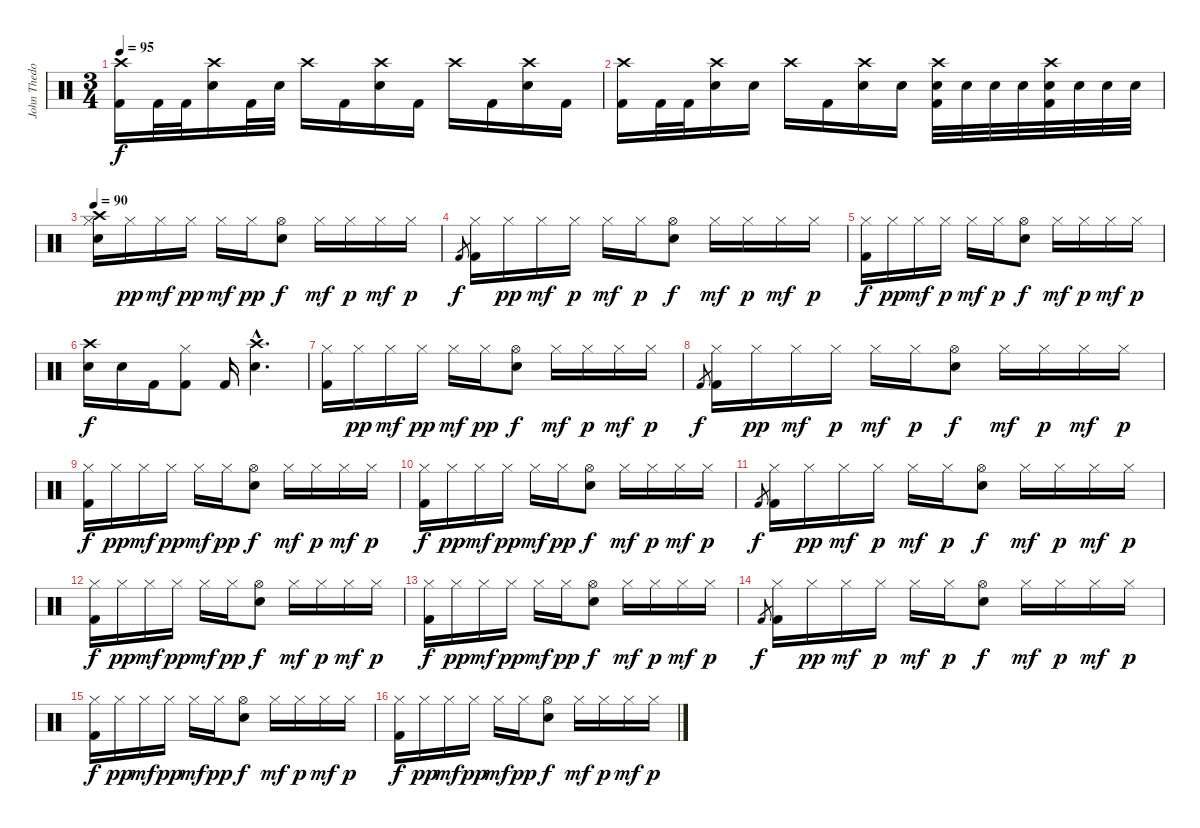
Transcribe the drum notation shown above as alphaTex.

\track ("John Thedore" "John Thedo") {instrument percussion}
\staff {score}
\articulation defaults
\ts (3 4)
\tempo 95
\clef neutral
\ks c
("Crash high (hit)" "Kick (hit) 2").16{dy f} "Kick (hit) 2".32 "Kick (hit) 2".32 ("Crash high (hit)" "Electric Snare (hit)").16 "Kick (hit) 2".32 "Electric Snare (hit)".32 "Crash high (hit)".16 "Kick (hit) 2".16 ("Crash high (hit)" "Electric Snare (hit)").16 "Kick (hit) 2".16 "Crash high (hit)".16 "Kick (hit) 2".16 ("Crash high (hit)" "Electric Snare (hit)").16 "Kick (hit) 2".16 |
("Crash high (hit)" "Kick (hit) 2").16 "Kick (hit) 2".32 "Kick (hit) 2".32 ("Crash high (hit)" "Electric Snare (hit)").16 "Electric Snare (hit)".16 "Crash high (hit)".16 "Kick (hit) 2".16 ("Crash high (hit)" "Electric Snare (hit)").16 "Electric Snare (hit)".16 ("Crash high (hit)" "Electric Snare (hit)" "Kick (hit) 2").32 "Electric Snare (hit)".32 "Electric Snare (hit)".32 "Electric Snare (hit)".32 ("Crash high (hit)" "Electric Snare (hit)" "Kick (hit) 2").32 "Electric Snare (hit)".32 "Electric Snare (hit)".32 "Electric Snare (hit)".32 |
\tempo 90
("Crash high (hit)" "Electric Snare (hit)" "Hi-Hat (closed)").16 "Hi-Hat (closed)".16{dy pp} "Hi-Hat (closed)".16{dy mf} "Hi-Hat (closed)".16{dy pp} "Hi-Hat (closed)".16{dy mf} "Hi-Hat (closed)".16{dy pp} ("Hi-Hat (open)" "Electric Snare (hit)").8{dy f} "Hi-Hat (closed)".16{dy mf} "Hi-Hat (closed)".16{dy p} "Hi-Hat (closed)".16{dy mf} "Hi-Hat (closed)".16{dy p} |
"Kick (hit) 2".8{gr dy f} ("Kick (hit) 2" "Hi-Hat (closed)").16 "Hi-Hat (closed)".16{dy pp} "Hi-Hat (closed)".16{dy mf} "Hi-Hat (closed)".16{dy p} "Hi-Hat (closed)".16{dy mf} "Hi-Hat (closed)".16{dy p} ("Hi-Hat (open)" "Electric Snare (hit)").8{dy f} "Hi-Hat (closed)".16{dy mf} "Hi-Hat (closed)".16{dy p} "Hi-Hat (closed)".16{dy mf} "Hi-Hat (closed)".16{dy p} |
("Kick (hit) 2" "Hi-Hat (closed)").16{dy f} "Hi-Hat (closed)".16{dy pp} "Hi-Hat (closed)".16{dy mf} "Hi-Hat (closed)".16{dy p} "Hi-Hat (closed)".16{dy mf} "Hi-Hat (closed)".16{dy p} ("Hi-Hat (open)" "Electric Snare (hit)").8{dy f} "Hi-Hat (closed)".16{dy mf} "Hi-Hat (closed)".16{dy p} "Hi-Hat (closed)".16{dy mf} "Hi-Hat (closed)".16{dy p} |
("Crash high (hit)" "Electric Snare (hit)").16{dy f} "Electric Snare (hit)".16 "Kick (hit) 2".16 ("Hi-Hat (closed)" "Kick (hit) 2").8 "Kick (hit) 2".16 ("Crash high (hit)"{hac} "Electric Snare (hit)"{hac}).4{d} |
("Kick (hit) 2" "Hi-Hat (closed)").16 "Hi-Hat (closed)".16{dy pp} "Hi-Hat (closed)".16{dy mf} "Hi-Hat (closed)".16{dy pp} "Hi-Hat (closed)".16{dy mf} "Hi-Hat (closed)".16{dy pp} ("Hi-Hat (open)" "Electric Snare (hit)").8{dy f} "Hi-Hat (closed)".16{dy mf} "Hi-Hat (closed)".16{dy p} "Hi-Hat (closed)".16{dy mf} "Hi-Hat (closed)".16{dy p} |
"Kick (hit) 2".8{gr dy f} ("Kick (hit) 2" "Hi-Hat (closed)").16 "Hi-Hat (closed)".16{dy pp} "Hi-Hat (closed)".16{dy mf} "Hi-Hat (closed)".16{dy p} "Hi-Hat (closed)".16{dy mf} "Hi-Hat (closed)".16{dy p} ("Hi-Hat (open)" "Electric Snare (hit)").8{dy f} "Hi-Hat (closed)".16{dy mf} "Hi-Hat (closed)".16{dy p} "Hi-Hat (closed)".16{dy mf} "Hi-Hat (closed)".16{dy p} |
("Kick (hit) 2" "Hi-Hat (closed)").16{dy f} "Hi-Hat (closed)".16{dy pp} "Hi-Hat (closed)".16{dy mf} "Hi-Hat (closed)".16{dy pp} "Hi-Hat (closed)".16{dy mf} "Hi-Hat (closed)".16{dy pp} ("Hi-Hat (open)" "Electric Snare (hit)").8{dy f} "Hi-Hat (closed)".16{dy mf} "Hi-Hat (closed)".16{dy p} "Hi-Hat (closed)".16{dy mf} "Hi-Hat (closed)".16{dy p} |
("Kick (hit) 2" "Hi-Hat (closed)").16{dy f} "Hi-Hat (closed)".16{dy pp} "Hi-Hat (closed)".16{dy mf} "Hi-Hat (closed)".16{dy pp} "Hi-Hat (closed)".16{dy mf} "Hi-Hat (closed)".16{dy pp} ("Hi-Hat (open)" "Electric Snare (hit)").8{dy f} "Hi-Hat (closed)".16{dy mf} "Hi-Hat (closed)".16{dy p} "Hi-Hat (closed)".16{dy mf} "Hi-Hat (closed)".16{dy p} |
"Kick (hit) 2".8{gr dy f} ("Kick (hit) 2" "Hi-Hat (closed)").16 "Hi-Hat (closed)".16{dy pp} "Hi-Hat (closed)".16{dy mf} "Hi-Hat (closed)".16{dy p} "Hi-Hat (closed)".16{dy mf} "Hi-Hat (closed)".16{dy p} ("Hi-Hat (open)" "Electric Snare (hit)").8{dy f} "Hi-Hat (closed)".16{dy mf} "Hi-Hat (closed)".16{dy p} "Hi-Hat (closed)".16{dy mf} "Hi-Hat (closed)".16{dy p} |
("Kick (hit) 2" "Hi-Hat (closed)").16{dy f} "Hi-Hat (closed)".16{dy pp} "Hi-Hat (closed)".16{dy mf} "Hi-Hat (closed)".16{dy pp} "Hi-Hat (closed)".16{dy mf} "Hi-Hat (closed)".16{dy pp} ("Hi-Hat (open)" "Electric Snare (hit)").8{dy f} "Hi-Hat (closed)".16{dy mf} "Hi-Hat (closed)".16{dy p} "Hi-Hat (closed)".16{dy mf} "Hi-Hat (closed)".16{dy p} |
("Kick (hit) 2" "Hi-Hat (closed)").16{dy f} "Hi-Hat (closed)".16{dy pp} "Hi-Hat (closed)".16{dy mf} "Hi-Hat (closed)".16{dy pp} "Hi-Hat (closed)".16{dy mf} "Hi-Hat (closed)".16{dy pp} ("Hi-Hat (open)" "Electric Snare (hit)").8{dy f} "Hi-Hat (closed)".16{dy mf} "Hi-Hat (closed)".16{dy p} "Hi-Hat (closed)".16{dy mf} "Hi-Hat (closed)".16{dy p} |
"Kick (hit) 2".8{gr dy f} ("Kick (hit) 2" "Hi-Hat (closed)").16 "Hi-Hat (closed)".16{dy pp} "Hi-Hat (closed)".16{dy mf} "Hi-Hat (closed)".16{dy p} "Hi-Hat (closed)".16{dy mf} "Hi-Hat (closed)".16{dy p} ("Hi-Hat (open)" "Electric Snare (hit)").8{dy f} "Hi-Hat (closed)".16{dy mf} "Hi-Hat (closed)".16{dy p} "Hi-Hat (closed)".16{dy mf} "Hi-Hat (closed)".16{dy p} |
("Kick (hit) 2" "Hi-Hat (closed)").16{dy f} "Hi-Hat (closed)".16{dy pp} "Hi-Hat (closed)".16{dy mf} "Hi-Hat (closed)".16{dy pp} "Hi-Hat (closed)".16{dy mf} "Hi-Hat (closed)".16{dy pp} ("Hi-Hat (open)" "Electric Snare (hit)").8{dy f} "Hi-Hat (closed)".16{dy mf} "Hi-Hat (closed)".16{dy p} "Hi-Hat (closed)".16{dy mf} "Hi-Hat (closed)".16{dy p} |
("Kick (hit) 2" "Hi-Hat (closed)").16{dy f} "Hi-Hat (closed)".16{dy pp} "Hi-Hat (closed)".16{dy mf} "Hi-Hat (closed)".16{dy pp} "Hi-Hat (closed)".16{dy mf} "Hi-Hat (closed)".16{dy pp} ("Hi-Hat (open)" "Electric Snare (hit)").8{dy f} "Hi-Hat (closed)".16{dy mf} "Hi-Hat (closed)".16{dy p} "Hi-Hat (closed)".16{dy mf} "Hi-Hat (closed)".16{dy p}
